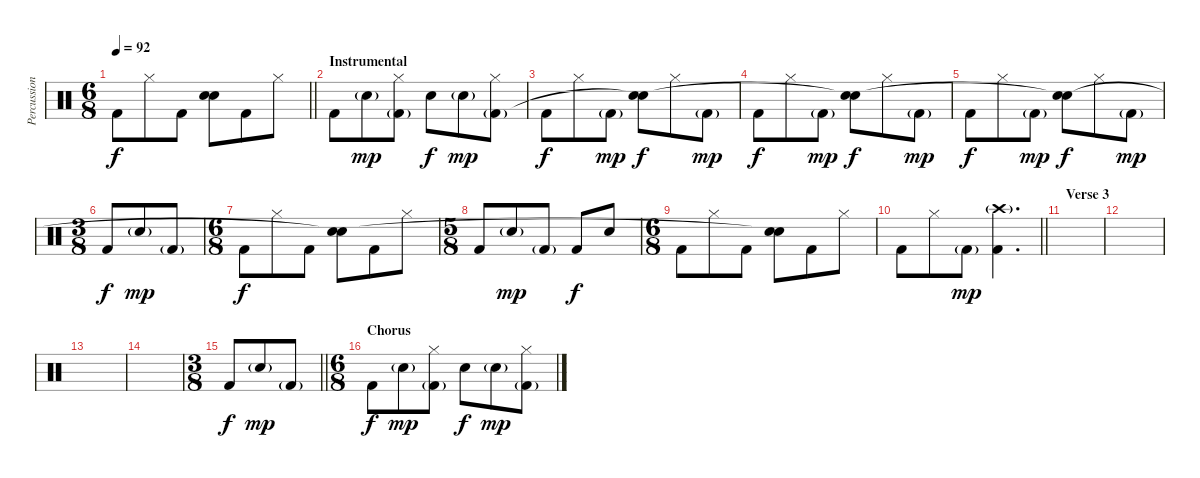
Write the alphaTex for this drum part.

\track ("Percussion" "Percussion") {instrument percussion}
\staff {score}
\articulation defaults
\ts (6 8)
\tempo 92
\clef neutral
\barLineRight lightlight
\ks c "Kick (hit) 2".8{dy f} "Hi-Hat (closed)".8 "Kick (hit) 2".8
("Snare (hit) 2" "Snare (hit)"{t}).8 "Kick (hit) 2".8 "Hi-Hat (closed)".8 |
\section ("" "Instrumental")
"Kick (hit) 2".8 "Snare (hit) 2"{g}.8{dy mp} ("Hi-Hat (closed)" "Kick (hit) 2"{g}).8 "Snare (hit) 2".8{dy f} "Snare (hit) 2"{g}.8{dy mp} ("Hi-Hat (closed)" "Kick (hit) 2"{g}).8 |
"Kick (hit) 2".8{dy f} "Hi-Hat (closed)".8 "Kick (hit) 2"{g}.8{dy mp} ("Snare (hit) 2" "Snare (hit)"{t}).8{dy f} "Hi-Hat (closed)".8 "Kick (hit) 2"{g}.8{dy mp} |
"Kick (hit) 2".8{dy f} "Hi-Hat (closed)".8 "Kick (hit) 2"{g}.8{dy mp} ("Snare (hit) 2" "Snare (hit)"{t}).8{dy f} "Hi-Hat (closed)".8 "Kick (hit) 2"{g}.8{dy mp} |
"Kick (hit) 2".8{dy f} "Hi-Hat (closed)".8 "Kick (hit) 2"{g}.8{dy mp} ("Snare (hit) 2" "Snare (hit)"{t}).8{dy f} "Hi-Hat (closed)".8 "Kick (hit) 2"{g}.8{dy mp} |
\ts (3 8)
"Kick (hit) 2".8{dy f} "Snare (hit) 2"{g}.8{dy mp} "Kick (hit) 2"{g}.8 |
\ts (6 8)
"Kick (hit) 2".8{dy f} "Hi-Hat (closed)".8 "Kick (hit) 2".8 ("Snare (hit) 2" "Snare (hit)"{t}).8 "Kick (hit) 2".8 "Hi-Hat (closed)".8 |
\ts (5 8)
"Kick (hit) 2".8 "Snare (hit) 2"{g}.8{dy mp} "Kick (hit) 2"{g}.8 "Kick (hit) 2".8{dy f} "Snare (hit) 2".8 |
\ts (6 8)
"Kick (hit) 2".8 "Hi-Hat (closed)".8 "Kick (hit) 2".8 ("Snare (hit) 2" "Snare (hit)"{t}).8 "Kick (hit) 2".8 "Hi-Hat (closed)".8 |
\barLineRight lightlight "Kick (hit) 2".8 "Hi-Hat (closed)".8 "Kick (hit) 2"{g}.8{dy mp}
("Crash high (hit)"{g} "Kick (hit) 2").4{d} |
\section ("" "Verse 3")
|
|
|
|
\ts (3 8)
\barLineRight lightlight "Kick (hit) 2".8{dy f} "Snare (hit) 2"{g}.8{dy mp} "Kick (hit) 2"{g}.8
|
\ts (6 8)
\section ("" "Chorus")
"Kick (hit) 2".8{dy f} "Snare (hit) 2"{g}.8{dy mp} ("Hi-Hat (closed)" "Kick (hit) 2"{g}).8 "Snare (hit) 2".8{dy f} "Snare (hit) 2"{g}.8{dy mp} ("Hi-Hat (closed)" "Kick (hit) 2"{g}).8
